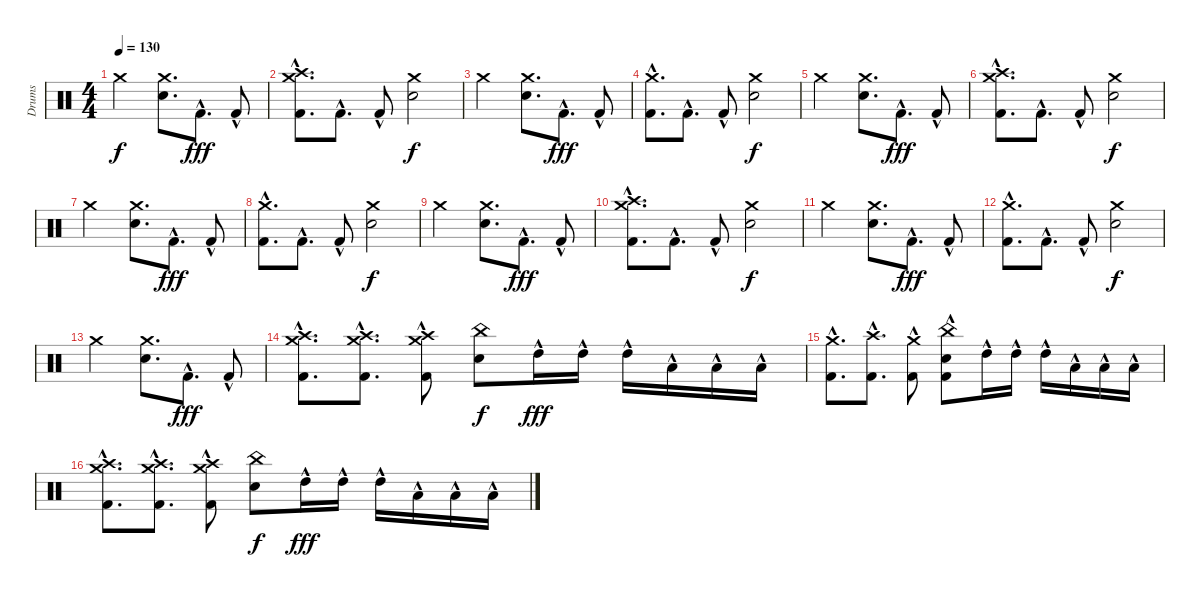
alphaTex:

\track ("Drums" "Drums") {instrument percussion}
\staff {score}
\articulation defaults
\ts (4 4)
\tempo 130
\clef neutral
\ks c "Crash medium (hit)".2{dy f}
("Crash medium (hit)" "Electric Snare (hit)").8{d} "Kick (hit) 2"{hac}.8{d dy fff} "Kick (hit) 2"{hac}.8 |
("Crash medium (hit)" "Crash high (hit)"{hac} "Kick (hit) 2"{hac}).8{d} "Kick (hit) 2"{hac}.8{d} "Kick (hit) 2"{hac}.8 ("Crash medium (hit)" "Electric Snare (hit)").2{dy f} |
"Crash medium (hit)".2 ("Crash medium (hit)" "Electric Snare (hit)").8{d} "Kick (hit) 2"{hac}.8{d dy fff} "Kick (hit) 2"{hac}.8 |
("Crash medium (hit)" "Kick (hit) 2"{hac}).8{d} "Kick (hit) 2"{hac}.8{d} "Kick (hit) 2"{hac}.8 ("Crash medium (hit)" "Electric Snare (hit)").2{dy f} |
"Crash medium (hit)".2 ("Crash medium (hit)" "Electric Snare (hit)").8{d} "Kick (hit) 2"{hac}.8{d dy fff} "Kick (hit) 2"{hac}.8 |
("Crash medium (hit)" "Crash high (hit)" "Kick (hit) 2"{hac}).8{d} "Kick (hit) 2"{hac}.8{d} "Kick (hit) 2"{hac}.8 ("Crash medium (hit)" "Electric Snare (hit)").2{dy f} |
"Crash medium (hit)".2 ("Crash medium (hit)" "Electric Snare (hit)").8{d} "Kick (hit) 2"{hac}.8{d dy fff} "Kick (hit) 2"{hac}.8 |
("Crash medium (hit)" "Kick (hit) 2"{hac}).8{d} "Kick (hit) 2"{hac}.8{d} "Kick (hit) 2"{hac}.8 ("Crash medium (hit)" "Electric Snare (hit)").2{dy f} |
"Crash medium (hit)".2 ("Crash medium (hit)" "Electric Snare (hit)").8{d} "Kick (hit) 2"{hac}.8{d dy fff} "Kick (hit) 2"{hac}.8 |
("Crash medium (hit)" "Crash high (hit)"{hac} "Kick (hit) 2"{hac}).8{d} "Kick (hit) 2"{hac}.8{d} "Kick (hit) 2"{hac}.8 ("Crash medium (hit)" "Electric Snare (hit)").2{dy f} |
"Crash medium (hit)".2 ("Crash medium (hit)" "Electric Snare (hit)").8{d} "Kick (hit) 2"{hac}.8{d dy fff} "Kick (hit) 2"{hac}.8 |
("Crash medium (hit)" "Kick (hit) 2"{hac}).8{d} "Kick (hit) 2"{hac}.8{d} "Kick (hit) 2"{hac}.8 ("Crash medium (hit)" "Electric Snare (hit)").2{dy f} |
"Crash medium (hit)".2 ("Crash medium (hit)" "Electric Snare (hit)").8{d} "Kick (hit) 2"{hac}.8{d dy fff} "Kick (hit) 2"{hac}.8 |
("Crash medium (hit)" "Crash high (hit)" "Kick (hit) 2"{hac}).8{d} ("Crash medium (hit)" "Crash high (hit)" "Kick (hit) 2"{hac}).8{d} ("Crash medium (hit)" "Crash high (hit)" "Kick (hit) 2"{hac}).8 ("China (hit)" "Electric Snare (hit)").8{dy f} "High Tom (hit)"{hac}.16{dy fff} "High Tom (hit)"{hac}.16 "High Tom (hit)"{hac}.16 "Low Tom (hit)"{hac}.16 "Low Tom (hit)"{hac}.16 "Low Tom (hit)"{hac}.16 |
("Crash medium (hit)" "Kick (hit) 2"{hac}).8{d} ("Crash high (hit)" "Kick (hit) 2"{hac}).8{d} ("Crash medium (hit)" "Kick (hit) 2"{hac}).8 ("China (hit)" "Electric Snare (hit)" "Kick (hit) 2"{hac}).8 "High Tom (hit)"{hac}.16 "High Tom (hit)"{hac}.16 "High Tom (hit)"{hac}.16 "Low Tom (hit)"{hac}.16 "Low Tom (hit)"{hac}.16 "Low Tom (hit)"{hac}.16 |
("Crash medium (hit)" "Crash high (hit)" "Kick (hit) 2"{hac}).8{d} ("Crash medium (hit)" "Crash high (hit)" "Kick (hit) 2"{hac}).8{d} ("Crash medium (hit)" "Crash high (hit)" "Kick (hit) 2"{hac}).8 ("China (hit)" "Electric Snare (hit)").8{dy f} "High Tom (hit)"{hac}.16{dy fff} "High Tom (hit)"{hac}.16 "High Tom (hit)"{hac}.16 "Low Tom (hit)"{hac}.16 "Low Tom (hit)"{hac}.16 "Low Tom (hit)"{hac}.16
